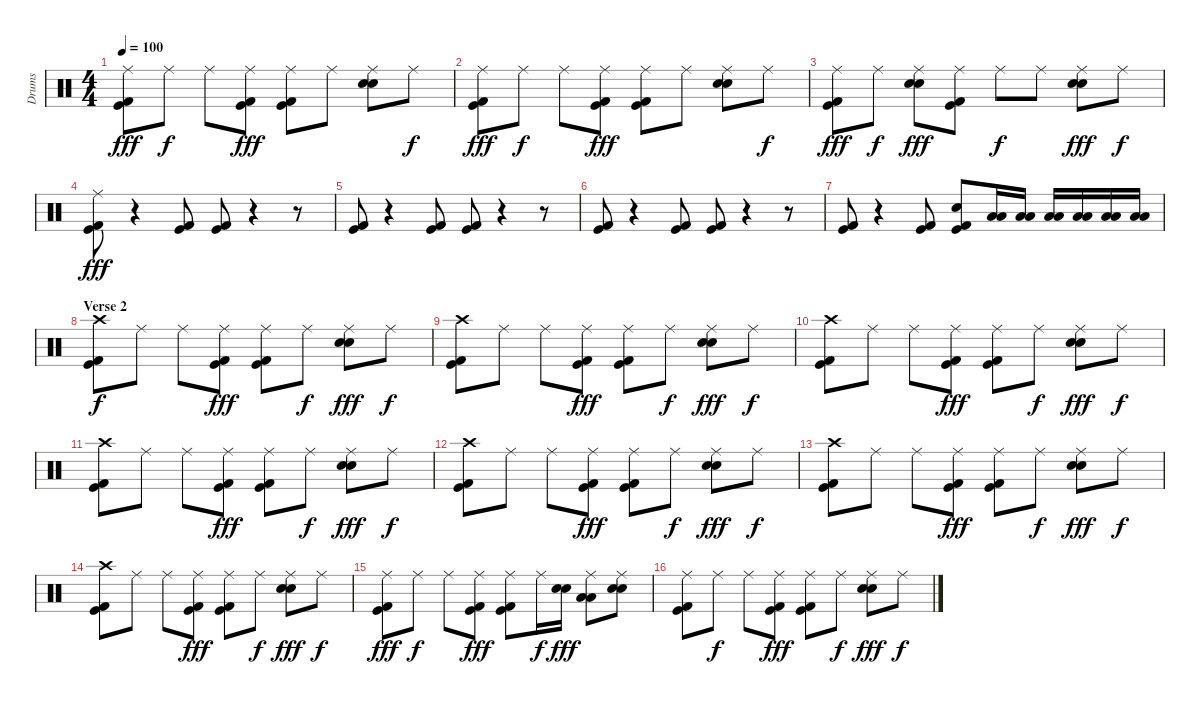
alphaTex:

\track ("Drums" "Drums") {instrument percussion}
\staff {score}
\articulation defaults
\ts (4 4)
\tempo 100
\clef neutral
\ks c
("Ride (middle)" "Kick (hit) 2" "Kick (hit)").8{dy fff} "Ride (middle)".8{dy f} "Ride (middle)".8 ("Ride (middle)" "Kick (hit) 2" "Kick (hit)").8{dy fff} ("Ride (middle)" "Kick (hit) 2" "Kick (hit)").8 "Ride (middle)".8 ("Ride (middle)" "Electric Snare (hit)" "Snare (hit) 2").8 "Ride (middle)".8{dy f} |
("Ride (middle)" "Kick (hit) 2" "Kick (hit)").8{dy fff} "Ride (middle)".8{dy f} "Ride (middle)".8 ("Ride (middle)" "Kick (hit) 2" "Kick (hit)").8{dy fff} ("Ride (middle)" "Kick (hit) 2" "Kick (hit)").8 "Ride (middle)".8 ("Ride (middle)" "Electric Snare (hit)" "Snare (hit) 2").8 "Ride (middle)".8{dy f} |
("Ride (middle)" "Kick (hit) 2" "Kick (hit)").8{dy fff} "Ride (middle)".8{dy f} ("Ride (middle)" "Electric Snare (hit)" "Snare (hit) 2").8{dy fff} ("Ride (middle)" "Kick (hit) 2" "Kick (hit)").8 "Ride (middle)".8{dy f} "Ride (middle)".8 ("Ride (middle)" "Electric Snare (hit)" "Snare (hit) 2").8{dy fff} "Ride (middle)".8{dy f} |
("Ride (middle)" "Kick (hit) 2" "Kick (hit)").8{dy fff} r.4 ("Kick (hit) 2" "Kick (hit)").8 ("Kick (hit) 2" "Kick (hit)").8 r.4 r.8 |
("Kick (hit) 2" "Kick (hit)").8 r.4 ("Kick (hit) 2" "Kick (hit)").8 ("Kick (hit) 2" "Kick (hit)").8 r.4 r.8 |
("Kick (hit) 2" "Kick (hit)").8 r.4 ("Kick (hit) 2" "Kick (hit)").8 ("Kick (hit) 2" "Kick (hit)").8 r.4 r.8 |
("Kick (hit) 2" "Kick (hit)").8 r.4 ("Kick (hit) 2" "Kick (hit)").8 ("Kick (hit) 2" "Kick (hit)" "Snare (hit) 2").8 ("Low Tom (hit)" "Low Tom (hit)").16 ("Low Tom (hit)" "Low Tom (hit)").16 ("Low Tom (hit)" "Low Tom (hit)").16 ("Low Tom (hit)" "Low Tom (hit)").16 ("Low Tom (hit)" "Low Tom (hit)").16 ("Low Tom (hit)" "Low Tom (hit)").16 |
\section ("" "Verse 2")
("Crash high (hit)" "Kick (hit) 2" "Kick (hit)").8{dy f} "Ride (middle)".8 "Ride (middle)".8 ("Ride (middle)" "Kick (hit) 2" "Kick (hit)").8{dy fff} ("Ride (middle)" "Kick (hit) 2" "Kick (hit)").8 "Ride (middle)".8{dy f} ("Ride (middle)" "Electric Snare (hit)" "Snare (hit) 2").8{dy fff} "Ride (middle)".8{dy f} |
("Crash high (hit)" "Kick (hit) 2" "Kick (hit)").8 "Ride (middle)".8 "Ride (middle)".8 ("Ride (middle)" "Kick (hit) 2" "Kick (hit)").8{dy fff} ("Ride (middle)" "Kick (hit) 2" "Kick (hit)").8 "Ride (middle)".8{dy f} ("Ride (middle)" "Electric Snare (hit)" "Snare (hit) 2").8{dy fff} "Ride (middle)".8{dy f} |
("Crash high (hit)" "Kick (hit) 2" "Kick (hit)").8 "Ride (middle)".8 "Ride (middle)".8 ("Ride (middle)" "Kick (hit) 2" "Kick (hit)").8{dy fff} ("Ride (middle)" "Kick (hit) 2" "Kick (hit)").8 "Ride (middle)".8{dy f} ("Ride (middle)" "Electric Snare (hit)" "Snare (hit) 2").8{dy fff} "Ride (middle)".8{dy f} |
("Crash high (hit)" "Kick (hit) 2" "Kick (hit)").8 "Ride (middle)".8 "Ride (middle)".8 ("Ride (middle)" "Kick (hit) 2" "Kick (hit)").8{dy fff} ("Ride (middle)" "Kick (hit) 2" "Kick (hit)").8 "Ride (middle)".8{dy f} ("Ride (middle)" "Electric Snare (hit)" "Snare (hit) 2").8{dy fff} "Ride (middle)".8{dy f} |
("Crash high (hit)" "Kick (hit) 2" "Kick (hit)").8 "Ride (middle)".8 "Ride (middle)".8 ("Ride (middle)" "Kick (hit) 2" "Kick (hit)").8{dy fff} ("Ride (middle)" "Kick (hit) 2" "Kick (hit)").8 "Ride (middle)".8{dy f} ("Ride (middle)" "Electric Snare (hit)" "Snare (hit) 2").8{dy fff} "Ride (middle)".8{dy f} |
("Crash high (hit)" "Kick (hit) 2" "Kick (hit)").8 "Ride (middle)".8 "Ride (middle)".8 ("Ride (middle)" "Kick (hit) 2" "Kick (hit)").8{dy fff} ("Ride (middle)" "Kick (hit) 2" "Kick (hit)").8 "Ride (middle)".8{dy f} ("Ride (middle)" "Electric Snare (hit)" "Snare (hit) 2").8{dy fff} "Ride (middle)".8{dy f} |
("Crash high (hit)" "Kick (hit) 2" "Kick (hit)").8 "Ride (middle)".8 "Ride (middle)".8 ("Ride (middle)" "Kick (hit) 2" "Kick (hit)").8{dy fff} ("Ride (middle)" "Kick (hit) 2" "Kick (hit)").8 "Ride (middle)".8{dy f} ("Ride (middle)" "Electric Snare (hit)" "Snare (hit) 2").8{dy fff} "Ride (middle)".8{dy f} |
("Ride (middle)" "Kick (hit) 2" "Kick (hit)").8{dy fff} "Ride (middle)".8{dy f} "Ride (middle)".8 ("Ride (middle)" "Kick (hit) 2" "Kick (hit)").8{dy fff} ("Ride (middle)" "Kick (hit) 2" "Kick (hit)").8 "Ride (middle)".16{dy f} ("Electric Snare (hit)" "Snare (hit) 2").16{dy fff} ("Ride (middle)" "Low Tom (hit)" "Low Tom (hit)").8 ("Ride (middle)" "Electric Snare (hit)" "Snare (hit) 2").8 |
("Ride (middle)" "Kick (hit) 2" "Kick (hit)").8 "Ride (middle)".8{dy f} "Ride (middle)".8 ("Ride (middle)" "Kick (hit) 2" "Kick (hit)").8{dy fff} ("Ride (middle)" "Kick (hit) 2" "Kick (hit)").8 "Ride (middle)".8{dy f} ("Ride (middle)" "Electric Snare (hit)" "Electric Snare (hit)").8{dy fff} "Ride (middle)".8{dy f}
